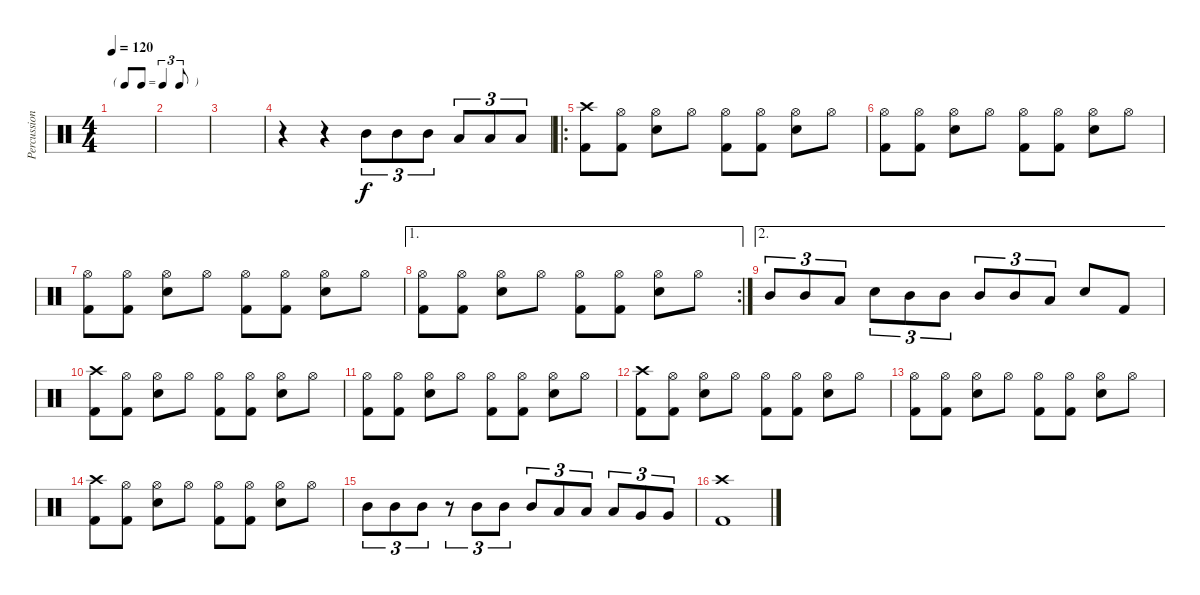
\track ("Percussions" "Percussion") {instrument percussion}
\staff {score}
\articulation defaults
\ts (4 4)
\tf triplet8th
\tempo 120
\clef neutral
\ks c
|
|
|
r.4 r.4 "Mid Tom (hit)".8{tu (3 2)} "Mid Tom (hit)".8{tu (3 2)} "Mid Tom (hit)".8{tu (3 2)} "Low Tom (hit)".8{tu (3 2)} "Low Tom (hit)".8{tu (3 2)} "Low Tom (hit)".8{tu (3 2)} |
\ro
("Crash high (hit)" "Kick (hit) 2").8 ("Hi-Hat (open)" "Kick (hit) 2").8 ("Hi-Hat (open)" "Snare (hit) 2").8 "Hi-Hat (open)".8 ("Hi-Hat (open)" "Kick (hit) 2").8 ("Hi-Hat (open)" "Kick (hit) 2").8 ("Hi-Hat (open)" "Snare (hit) 2").8 "Hi-Hat (open)".8 |
("Hi-Hat (open)" "Kick (hit) 2").8 ("Hi-Hat (open)" "Kick (hit) 2").8 ("Hi-Hat (open)" "Snare (hit) 2").8 "Hi-Hat (open)".8 ("Hi-Hat (open)" "Kick (hit) 2").8 ("Hi-Hat (open)" "Kick (hit) 2").8 ("Hi-Hat (open)" "Snare (hit) 2").8 "Hi-Hat (open)".8 |
("Hi-Hat (open)" "Kick (hit) 2").8 ("Hi-Hat (open)" "Kick (hit) 2").8 ("Hi-Hat (open)" "Snare (hit) 2").8 "Hi-Hat (open)".8 ("Hi-Hat (open)" "Kick (hit) 2").8 ("Hi-Hat (open)" "Kick (hit) 2").8 ("Hi-Hat (open)" "Snare (hit) 2").8 "Hi-Hat (open)".8 |
\ae 1
\rc 2
("Hi-Hat (open)" "Kick (hit) 2").8 ("Hi-Hat (open)" "Kick (hit) 2").8 ("Hi-Hat (open)" "Snare (hit) 2").8 "Hi-Hat (open)".8 ("Hi-Hat (open)" "Kick (hit) 2").8 ("Hi-Hat (open)" "Kick (hit) 2").8 ("Hi-Hat (open)" "Snare (hit) 2").8 "Hi-Hat (open)".8 |
\ae 2 "Mid Tom (hit)".8{tu (3 2)} "Mid Tom (hit)".8{tu (3 2)} "Low Tom (hit)".8{tu (3 2)} "Snare (hit) 2".8{tu (3 2)} "Mid Tom (hit)".8{tu (3 2)} "Mid Tom (hit)".8{tu (3 2)} "Mid Tom (hit)".8{tu (3 2)} "Mid Tom (hit)".8{tu (3 2)} "Low Tom (hit)".8{tu (3 2)} "Snare (hit) 2".8 "Kick (hit) 2".8
|
("Crash high (hit)" "Kick (hit) 2").8 ("Hi-Hat (open)" "Kick (hit) 2").8 ("Hi-Hat (open)" "Snare (hit) 2").8 "Hi-Hat (open)".8 ("Hi-Hat (open)" "Kick (hit) 2").8 ("Hi-Hat (open)" "Kick (hit) 2").8 ("Hi-Hat (open)" "Snare (hit) 2").8 "Hi-Hat (open)".8 |
("Hi-Hat (open)" "Kick (hit) 2").8 ("Hi-Hat (open)" "Kick (hit) 2").8 ("Hi-Hat (open)" "Snare (hit) 2").8 "Hi-Hat (open)".8 ("Hi-Hat (open)" "Kick (hit) 2").8 ("Hi-Hat (open)" "Kick (hit) 2").8 ("Hi-Hat (open)" "Snare (hit) 2").8 "Hi-Hat (open)".8 |
("Crash high (hit)" "Kick (hit) 2").8 ("Hi-Hat (open)" "Kick (hit) 2").8 ("Hi-Hat (open)" "Snare (hit) 2").8 "Hi-Hat (open)".8 ("Hi-Hat (open)" "Kick (hit) 2").8 ("Hi-Hat (open)" "Kick (hit) 2").8 ("Hi-Hat (open)" "Snare (hit) 2").8 "Hi-Hat (open)".8 |
("Hi-Hat (open)" "Kick (hit) 2").8 ("Hi-Hat (open)" "Kick (hit) 2").8 ("Hi-Hat (open)" "Snare (hit) 2").8 "Hi-Hat (open)".8 ("Hi-Hat (open)" "Kick (hit) 2").8 ("Hi-Hat (open)" "Kick (hit) 2").8 ("Hi-Hat (open)" "Snare (hit) 2").8 "Hi-Hat (open)".8 |
("Crash high (hit)" "Kick (hit) 2").8 ("Hi-Hat (open)" "Kick (hit) 2").8 ("Hi-Hat (open)" "Snare (hit) 2").8 "Hi-Hat (open)".8 ("Hi-Hat (open)" "Kick (hit) 2").8 ("Hi-Hat (open)" "Kick (hit) 2").8 ("Hi-Hat (open)" "Snare (hit) 2").8 "Hi-Hat (open)".8 |
"Mid Tom (hit)".8{tu (3 2)} "Mid Tom (hit)".8{tu (3 2)} "Mid Tom (hit)".8{tu (3 2)} r.8{tu (3 2)} "Mid Tom (hit)".8{tu (3 2)} "Mid Tom (hit)".8{tu (3 2)} "Mid Tom (hit)".8{tu (3 2)} "Low Tom (hit)".8{tu (3 2)} "Low Tom (hit)".8{tu (3 2)} "Low Tom (hit)".8{tu (3 2)} "Very Low Tom (hit)".8{tu (3 2)} "Very Low Tom (hit)".8{tu (3 2)} |
("Crash high (hit)" "Kick (hit) 2").1
